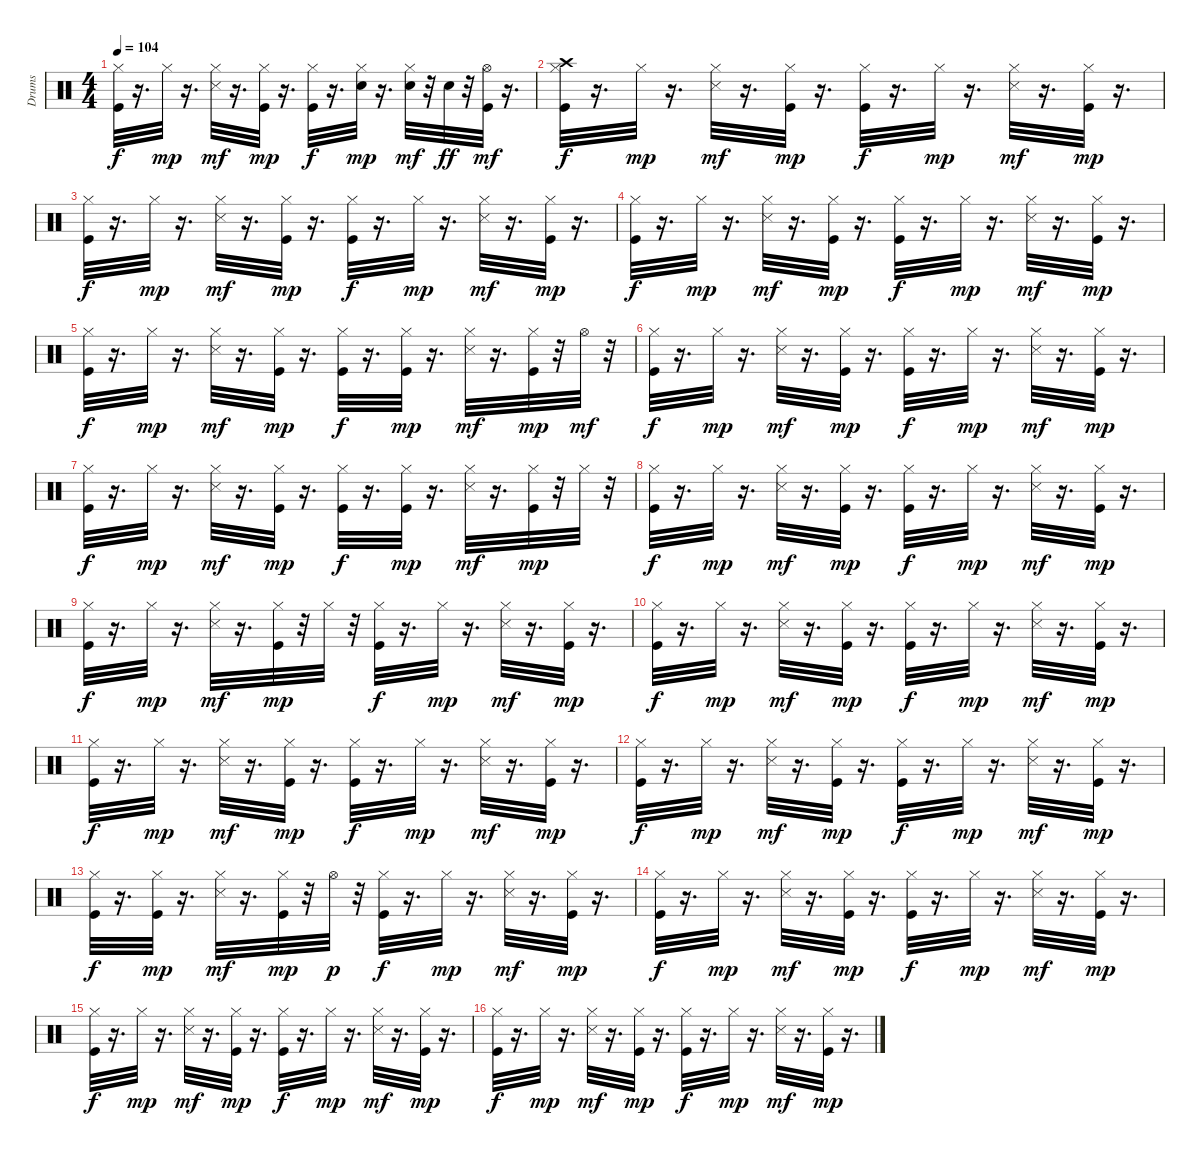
\track ("Drums" "Drums") {instrument percussion}
\staff {score}
\articulation defaults
\ts (4 4)
\tempo 104
\clef neutral
\ks c
("Kick (hit)" "Hi-Hat (closed)").32{dy f} r.16{d} "Hi-Hat (closed)".32{dy mp} r.16{d} ("Hi-Hat (closed)" "Snare (side stick) 3").32{dy mf} r.16{d} ("Kick (hit)" "Hi-Hat (closed)").32{dy mp} r.16{d} ("Kick (hit)" "Hi-Hat (closed)").32{dy f} r.16{d} ("Snare (hit) 2" "Hi-Hat (closed)").32{dy mp} r.16{d} ("Snare (hit) 2" "Hi-Hat (closed)").32{dy mf} r.32 "Snare (hit) 2".32{dy ff} r.32 ("Kick (hit)" "Hi-Hat (open)").32{dy mf} r.16{d} |
("Kick (hit)" "Hi-Hat (closed)" "Crash high (hit)").32{dy f} r.16{d} "Hi-Hat (closed)".32{dy mp} r.16{d} ("Hi-Hat (closed)" "Snare (side stick) 3").32{dy mf} r.16{d} ("Kick (hit)" "Hi-Hat (closed)").32{dy mp} r.16{d} ("Kick (hit)" "Hi-Hat (closed)").32{dy f} r.16{d} "Hi-Hat (closed)".32{dy mp} r.16{d} ("Hi-Hat (closed)" "Snare (side stick) 3").32{dy mf} r.16{d} ("Kick (hit)" "Hi-Hat (closed)").32{dy mp} r.16{d} |
("Kick (hit)" "Hi-Hat (closed)").32{dy f} r.16{d} "Hi-Hat (closed)".32{dy mp} r.16{d} ("Hi-Hat (closed)" "Snare (side stick) 3").32{dy mf} r.16{d} ("Kick (hit)" "Hi-Hat (closed)").32{dy mp} r.16{d} ("Kick (hit)" "Hi-Hat (closed)").32{dy f} r.16{d} "Hi-Hat (closed)".32{dy mp} r.16{d} ("Hi-Hat (closed)" "Snare (side stick) 3").32{dy mf} r.16{d} ("Kick (hit)" "Hi-Hat (closed)").32{dy mp} r.16{d} |
("Kick (hit)" "Hi-Hat (closed)").32{dy f} r.16{d} "Hi-Hat (closed)".32{dy mp} r.16{d} ("Hi-Hat (closed)" "Snare (side stick) 3").32{dy mf} r.16{d} ("Kick (hit)" "Hi-Hat (closed)").32{dy mp} r.16{d} ("Kick (hit)" "Hi-Hat (closed)").32{dy f} r.16{d} "Hi-Hat (closed)".32{dy mp} r.16{d} ("Hi-Hat (closed)" "Snare (side stick) 3").32{dy mf} r.16{d} ("Kick (hit)" "Hi-Hat (closed)").32{dy mp} r.16{d} |
("Kick (hit)" "Hi-Hat (closed)").32{dy f} r.16{d} "Hi-Hat (closed)".32{dy mp} r.16{d} ("Hi-Hat (closed)" "Snare (side stick) 3").32{dy mf} r.16{d} ("Kick (hit)" "Hi-Hat (closed)").32{dy mp} r.16{d} ("Kick (hit)" "Hi-Hat (closed)").32{dy f} r.16{d} ("Kick (hit)" "Hi-Hat (closed)").32{dy mp} r.16{d} ("Hi-Hat (closed)" "Snare (side stick) 3").32{dy mf} r.16{d} ("Kick (hit)" "Hi-Hat (closed)").32{dy mp} r.32 "Hi-Hat (open)".32{dy mf} r.32 |
("Kick (hit)" "Hi-Hat (closed)").32{dy f} r.16{d} "Hi-Hat (closed)".32{dy mp} r.16{d} ("Hi-Hat (closed)" "Snare (side stick) 3").32{dy mf} r.16{d} ("Kick (hit)" "Hi-Hat (closed)").32{dy mp} r.16{d} ("Kick (hit)" "Hi-Hat (closed)").32{dy f} r.16{d} "Hi-Hat (closed)".32{dy mp} r.16{d} ("Hi-Hat (closed)" "Snare (side stick) 3").32{dy mf} r.16{d} ("Kick (hit)" "Hi-Hat (closed)").32{dy mp} r.16{d} |
("Kick (hit)" "Hi-Hat (closed)").32{dy f} r.16{d} "Hi-Hat (closed)".32{dy mp} r.16{d} ("Hi-Hat (closed)" "Snare (side stick) 3").32{dy mf} r.16{d} ("Kick (hit)" "Hi-Hat (closed)").32{dy mp} r.16{d} ("Kick (hit)" "Hi-Hat (closed)").32{dy f} r.16{d} ("Kick (hit)" "Hi-Hat (closed)").32{dy mp} r.16{d} ("Hi-Hat (closed)" "Snare (side stick) 3").32{dy mf} r.16{d} ("Kick (hit)" "Hi-Hat (closed)").32{dy mp} r.32 "Hi-Hat (closed)".32 r.32 |
("Kick (hit)" "Hi-Hat (closed)").32{dy f} r.16{d} "Hi-Hat (closed)".32{dy mp} r.16{d} ("Hi-Hat (closed)" "Snare (side stick) 3").32{dy mf} r.16{d} ("Kick (hit)" "Hi-Hat (closed)").32{dy mp} r.16{d} ("Kick (hit)" "Hi-Hat (closed)").32{dy f} r.16{d} "Hi-Hat (closed)".32{dy mp} r.16{d} ("Hi-Hat (closed)" "Snare (side stick) 3").32{dy mf} r.16{d} ("Kick (hit)" "Hi-Hat (closed)").32{dy mp} r.16{d} |
("Kick (hit)" "Hi-Hat (closed)").32{dy f} r.16{d} "Hi-Hat (closed)".32{dy mp} r.16{d} ("Hi-Hat (closed)" "Snare (side stick) 3").32{dy mf} r.16{d} ("Kick (hit)" "Hi-Hat (closed)").32{dy mp} r.32 "Hi-Hat (closed)".32 r.32 ("Kick (hit)" "Hi-Hat (closed)").32{dy f} r.16{d} "Hi-Hat (closed)".32{dy mp} r.16{d} ("Hi-Hat (closed)" "Snare (side stick) 3").32{dy mf} r.16{d} ("Kick (hit)" "Hi-Hat (closed)").32{dy mp} r.16{d} |
("Kick (hit)" "Hi-Hat (closed)").32{dy f} r.16{d} "Hi-Hat (closed)".32{dy mp} r.16{d} ("Hi-Hat (closed)" "Snare (side stick) 3").32{dy mf} r.16{d} ("Kick (hit)" "Hi-Hat (closed)").32{dy mp} r.16{d} ("Kick (hit)" "Hi-Hat (closed)").32{dy f} r.16{d} "Hi-Hat (closed)".32{dy mp} r.16{d} ("Hi-Hat (closed)" "Snare (side stick) 3").32{dy mf} r.16{d} ("Kick (hit)" "Hi-Hat (closed)").32{dy mp} r.16{d} |
("Kick (hit)" "Hi-Hat (closed)").32{dy f} r.16{d} "Hi-Hat (closed)".32{dy mp} r.16{d} ("Hi-Hat (closed)" "Snare (side stick) 3").32{dy mf} r.16{d} ("Kick (hit)" "Hi-Hat (closed)").32{dy mp} r.16{d} ("Kick (hit)" "Hi-Hat (closed)").32{dy f} r.16{d} "Hi-Hat (closed)".32{dy mp} r.16{d} ("Hi-Hat (closed)" "Snare (side stick) 3").32{dy mf} r.16{d} ("Kick (hit)" "Hi-Hat (closed)").32{dy mp} r.16{d} |
("Kick (hit)" "Hi-Hat (closed)").32{dy f} r.16{d} "Hi-Hat (closed)".32{dy mp} r.16{d} ("Hi-Hat (closed)" "Snare (side stick) 3").32{dy mf} r.16{d} ("Kick (hit)" "Hi-Hat (closed)").32{dy mp} r.16{d} ("Kick (hit)" "Hi-Hat (closed)").32{dy f} r.16{d} "Hi-Hat (closed)".32{dy mp} r.16{d} ("Hi-Hat (closed)" "Snare (side stick) 3").32{dy mf} r.16{d} ("Kick (hit)" "Hi-Hat (closed)").32{dy mp} r.16{d} |
("Kick (hit)" "Hi-Hat (closed)").32{dy f} r.16{d} ("Kick (hit)" "Hi-Hat (closed)").32{dy mp} r.16{d} ("Hi-Hat (closed)" "Snare (side stick) 3").32{dy mf} r.16{d} ("Kick (hit)" "Hi-Hat (closed)").32{dy mp} r.32 "Hi-Hat (open)".32{dy p} r.32 ("Kick (hit)" "Hi-Hat (closed)").32{dy f} r.16{d} "Hi-Hat (closed)".32{dy mp} r.16{d} ("Hi-Hat (closed)" "Snare (side stick) 3").32{dy mf} r.16{d} ("Kick (hit)" "Hi-Hat (closed)").32{dy mp} r.16{d} |
("Kick (hit)" "Hi-Hat (closed)").32{dy f} r.16{d} "Hi-Hat (closed)".32{dy mp} r.16{d} ("Hi-Hat (closed)" "Snare (side stick) 3").32{dy mf} r.16{d} ("Kick (hit)" "Hi-Hat (closed)").32{dy mp} r.16{d} ("Kick (hit)" "Hi-Hat (closed)").32{dy f} r.16{d} "Hi-Hat (closed)".32{dy mp} r.16{d} ("Hi-Hat (closed)" "Snare (side stick) 3").32{dy mf} r.16{d} ("Kick (hit)" "Hi-Hat (closed)").32{dy mp} r.16{d} |
("Kick (hit)" "Hi-Hat (closed)").32{dy f} r.16{d} "Hi-Hat (closed)".32{dy mp} r.16{d} ("Hi-Hat (closed)" "Snare (side stick) 3").32{dy mf} r.16{d} ("Kick (hit)" "Hi-Hat (closed)").32{dy mp} r.16{d} ("Kick (hit)" "Hi-Hat (closed)").32{dy f} r.16{d} "Hi-Hat (closed)".32{dy mp} r.16{d} ("Hi-Hat (closed)" "Snare (side stick) 3").32{dy mf} r.16{d} ("Kick (hit)" "Hi-Hat (closed)").32{dy mp} r.16{d} |
("Kick (hit)" "Hi-Hat (closed)").32{dy f} r.16{d} "Hi-Hat (closed)".32{dy mp} r.16{d} ("Hi-Hat (closed)" "Snare (side stick) 3").32{dy mf} r.16{d} ("Kick (hit)" "Hi-Hat (closed)").32{dy mp} r.16{d} ("Kick (hit)" "Hi-Hat (closed)").32{dy f} r.16{d} "Hi-Hat (closed)".32{dy mp} r.16{d} ("Hi-Hat (closed)" "Snare (side stick) 3").32{dy mf} r.16{d} ("Kick (hit)" "Hi-Hat (closed)").32{dy mp} r.16{d}
